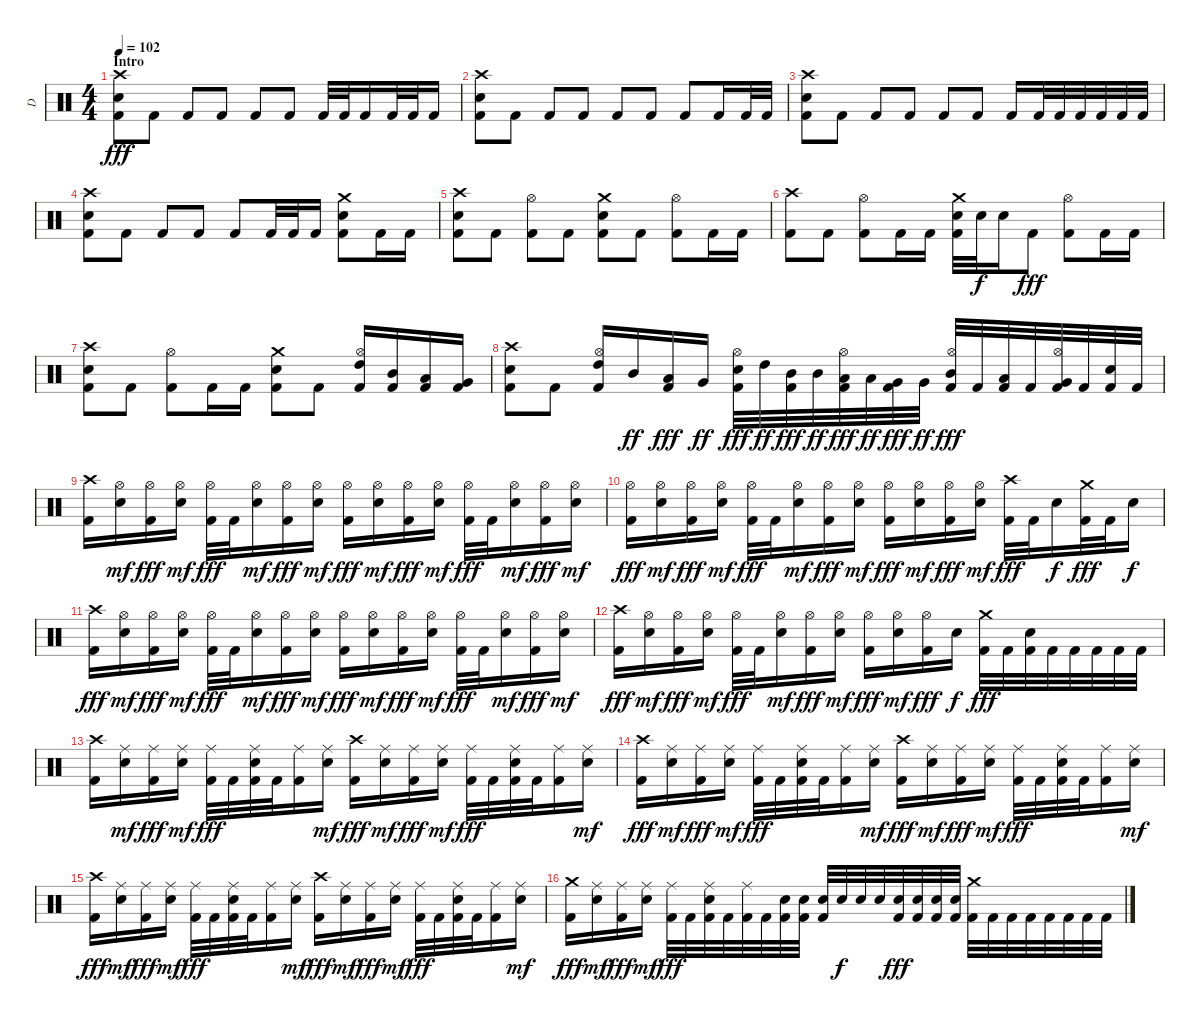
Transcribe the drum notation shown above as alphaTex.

\track ("D" "D") {instrument percussion}
\staff {score}
\articulation defaults
\ts (4 4)
\section ("" "Intro")
\tempo 102
\clef neutral
\ks c
("Crash high (hit)" "Snare (hit) 2" "Kick (hit) 2").8{dy fff} "Kick (hit) 2".8 "Kick (hit) 2".8 "Kick (hit) 2".8 "Kick (hit) 2".8 "Kick (hit) 2".8 "Kick (hit) 2".32 "Kick (hit) 2".32 "Kick (hit) 2".16 "Kick (hit) 2".32 "Kick (hit) 2".32 "Kick (hit) 2".16 |
("Crash high (hit)" "Snare (hit) 2" "Kick (hit) 2").8 "Kick (hit) 2".8 "Kick (hit) 2".8 "Kick (hit) 2".8 "Kick (hit) 2".8 "Kick (hit) 2".8 "Kick (hit) 2".8 "Kick (hit) 2".16 "Kick (hit) 2".32 "Kick (hit) 2".32 |
("Crash high (hit)" "Snare (hit) 2" "Kick (hit) 2").8 "Kick (hit) 2".8 "Kick (hit) 2".8 "Kick (hit) 2".8 "Kick (hit) 2".8 "Kick (hit) 2".8 "Kick (hit) 2".16 "Kick (hit) 2".32 "Kick (hit) 2".32 "Kick (hit) 2".32 "Kick (hit) 2".32 "Kick (hit) 2".32 "Kick (hit) 2".32 |
("Crash high (hit)" "Snare (hit) 2" "Kick (hit) 2").8 "Kick (hit) 2".8 "Kick (hit) 2".8 "Kick (hit) 2".8 "Kick (hit) 2".8 "Kick (hit) 2".32 "Kick (hit) 2".32 "Kick (hit) 2".16 ("Crash medium (hit)" "Snare (hit) 2" "Kick (hit) 2").8 "Kick (hit) 2".16 "Kick (hit) 2".16 |
("Crash high (hit)" "Snare (hit) 2" "Kick (hit) 2").8 "Kick (hit) 2".8 ("Hi-Hat (open)" "Kick (hit) 2").8 "Kick (hit) 2".8 ("Crash medium (hit)" "Snare (hit) 2" "Kick (hit) 2").8 "Kick (hit) 2".8 ("Hi-Hat (open)" "Kick (hit) 2").8 "Kick (hit) 2".16 "Kick (hit) 2".16 |
("Crash high (hit)" "Kick (hit) 2").8 "Kick (hit) 2".8 ("Hi-Hat (open)" "Kick (hit) 2").8 "Kick (hit) 2".16 "Kick (hit) 2".16 ("Crash medium (hit)" "Snare (hit) 2" "Kick (hit) 2").32 "Snare (hit) 2".32{dy f} "Snare (hit) 2".16 "Kick (hit) 2".8{dy fff} ("Hi-Hat (open)" "Kick (hit) 2").8 "Kick (hit) 2".16 "Kick (hit) 2".16 |
("Crash high (hit)" "Snare (hit) 2" "Kick (hit) 2").8 "Kick (hit) 2".8 ("Hi-Hat (open)" "Kick (hit) 2").8 "Kick (hit) 2".16 "Kick (hit) 2".16 ("Crash medium (hit)" "Snare (hit) 2" "Kick (hit) 2").8 "Kick (hit) 2".8 ("Hi-Hat (open)" "High Tom (hit)" "Kick (hit) 2").16 ("Mid Tom (hit)" "Kick (hit) 2").16 ("Low Tom (hit)" "Kick (hit) 2").16 ("Very Low Tom (hit)" "Kick (hit) 2").16 |
("Crash high (hit)" "Snare (hit) 2" "Kick (hit) 2").8 "Kick (hit) 2".8 ("Hi-Hat (open)" "High Tom (hit)" "Kick (hit) 2").16 "Mid Tom (hit)".16{dy ff} ("Low Tom (hit)" "Kick (hit) 2").16{dy fff} "Very Low Tom (hit)".16{dy ff} ("Hi-Hat (open)" "Snare (hit) 2" "Kick (hit) 2").32{dy fff} "High Tom (hit)".32{dy ff} ("Mid Tom (hit)" "Kick (hit) 2").32{dy fff} "Mid Tom (hit)".32{dy ff} ("Hi-Hat (open)" "Low Tom (hit)" "Kick (hit) 2").32{dy fff} "Low Tom (hit)".32{dy ff} ("Very Low Tom (hit)" "Kick (hit) 2").32{dy fff} "Very Low Tom (hit)".32{dy ff} ("Hi-Hat (open)" "Mid Tom (hit)" "Kick (hit) 2").32{dy fff} "Kick (hit) 2".32 ("Low Tom (hit)" "Kick (hit) 2").32 "Kick (hit) 2".32 ("Hi-Hat (open)" "Very Low Tom (hit)" "Kick (hit) 2").32 "Kick (hit) 2".32 ("Snare (hit) 2" "Kick (hit) 2").32 "Kick (hit) 2".32 |
\section ("" "")
("Crash high (hit)" "Kick (hit) 2").16 ("Hi-Hat (open)" "Snare (hit) 2").16{dy mf} ("Hi-Hat (open)" "Kick (hit) 2").16{dy fff} ("Hi-Hat (open)" "Snare (hit) 2").16{dy mf} ("Hi-Hat (open)" "Kick (hit) 2").32{dy fff} "Kick (hit) 2".32 ("Hi-Hat (open)" "Snare (hit) 2").16{dy mf} ("Hi-Hat (open)" "Kick (hit) 2").16{dy fff} ("Hi-Hat (open)" "Snare (hit) 2").16{dy mf} ("Hi-Hat (open)" "Kick (hit) 2").16{dy fff} ("Hi-Hat (open)" "Snare (hit) 2").16{dy mf} ("Hi-Hat (open)" "Kick (hit) 2").16{dy fff} ("Hi-Hat (open)" "Snare (hit) 2").16{dy mf} ("Hi-Hat (open)" "Kick (hit) 2").32{dy fff} "Kick (hit) 2".32 ("Hi-Hat (open)" "Snare (hit) 2").16{dy mf} ("Hi-Hat (open)" "Kick (hit) 2").16{dy fff} ("Hi-Hat (open)" "Snare (hit) 2").16{dy mf} |
("Hi-Hat (open)" "Kick (hit) 2").16{dy fff} ("Hi-Hat (open)" "Snare (hit) 2").16{dy mf} ("Hi-Hat (open)" "Kick (hit) 2").16{dy fff} ("Hi-Hat (open)" "Snare (hit) 2").16{dy mf} ("Hi-Hat (open)" "Kick (hit) 2").32{dy fff} "Kick (hit) 2".32 ("Hi-Hat (open)" "Snare (hit) 2").16{dy mf} ("Hi-Hat (open)" "Kick (hit) 2").16{dy fff} ("Hi-Hat (open)" "Snare (hit) 2").16{dy mf} ("Hi-Hat (open)" "Kick (hit) 2").16{dy fff} ("Hi-Hat (open)" "Snare (hit) 2").16{dy mf} ("Hi-Hat (open)" "Kick (hit) 2").16{dy fff} ("Hi-Hat (open)" "Snare (hit) 2").16{dy mf} ("Crash high (hit)" "Kick (hit) 2").32{dy fff} "Kick (hit) 2".32 "Snare (hit) 2".16{dy f} ("Crash medium (hit)" "Kick (hit) 2").32{dy fff} "Kick (hit) 2".32 "Snare (hit) 2".16{dy f} |
("Crash high (hit)" "Kick (hit) 2").16{dy fff} ("Hi-Hat (open)" "Snare (hit) 2").16{dy mf} ("Hi-Hat (open)" "Kick (hit) 2").16{dy fff} ("Hi-Hat (open)" "Snare (hit) 2").16{dy mf} ("Hi-Hat (open)" "Kick (hit) 2").32{dy fff} "Kick (hit) 2".32 ("Hi-Hat (open)" "Snare (hit) 2").16{dy mf} ("Hi-Hat (open)" "Kick (hit) 2").16{dy fff} ("Hi-Hat (open)" "Snare (hit) 2").16{dy mf} ("Hi-Hat (open)" "Kick (hit) 2").16{dy fff} ("Hi-Hat (open)" "Snare (hit) 2").16{dy mf} ("Hi-Hat (open)" "Kick (hit) 2").16{dy fff} ("Hi-Hat (open)" "Snare (hit) 2").16{dy mf} ("Hi-Hat (open)" "Kick (hit) 2").32{dy fff} "Kick (hit) 2".32 ("Hi-Hat (open)" "Snare (hit) 2").16{dy mf} ("Hi-Hat (open)" "Kick (hit) 2").16{dy fff} ("Hi-Hat (open)" "Snare (hit) 2").16{dy mf} |
("Crash high (hit)" "Kick (hit) 2").16{dy fff} ("Hi-Hat (open)" "Snare (hit) 2").16{dy mf} ("Hi-Hat (open)" "Kick (hit) 2").16{dy fff} ("Hi-Hat (open)" "Snare (hit) 2").16{dy mf} ("Hi-Hat (open)" "Kick (hit) 2").32{dy fff} "Kick (hit) 2".32 ("Hi-Hat (open)" "Snare (hit) 2").16{dy mf} ("Hi-Hat (open)" "Kick (hit) 2").16{dy fff} ("Hi-Hat (open)" "Snare (hit) 2").16{dy mf} ("Hi-Hat (open)" "Kick (hit) 2").16{dy fff} ("Hi-Hat (open)" "Snare (hit) 2").16{dy mf} ("Hi-Hat (open)" "Kick (hit) 2").16{dy fff} "Snare (hit) 2".16{dy f} ("Crash medium (hit)" "Kick (hit) 2").32{dy fff} "Kick (hit) 2".32 ("Snare (hit) 2" "Kick (hit) 2").32 "Kick (hit) 2".32 "Kick (hit) 2".32 "Kick (hit) 2".32 "Kick (hit) 2".32 "Kick (hit) 2".32 |
("Crash high (hit)" "Kick (hit) 2").16 ("Ride (middle)" "Snare (hit) 2").16{dy mf} ("Ride (middle)" "Kick (hit) 2").16{dy fff} ("Ride (middle)" "Snare (hit) 2").16{dy mf} ("Ride (middle)" "Kick (hit) 2").32{dy fff} "Kick (hit) 2".32 ("Ride (middle)" "Snare (hit) 2" "Kick (hit) 2").32 "Kick (hit) 2".32 ("Ride (middle)" "Kick (hit) 2").16 ("Ride (middle)" "Snare (hit) 2").16{dy mf} ("Crash high (hit)" "Kick (hit) 2").16{dy fff} ("Ride (middle)" "Snare (hit) 2").16{dy mf} ("Ride (middle)" "Kick (hit) 2").16{dy fff} ("Ride (middle)" "Snare (hit) 2").16{dy mf} ("Ride (middle)" "Kick (hit) 2").32{dy fff} "Kick (hit) 2".32 ("Ride (middle)" "Snare (hit) 2" "Kick (hit) 2").32 "Kick (hit) 2".32 ("Ride (middle)" "Kick (hit) 2").16 ("Ride (middle)" "Snare (hit) 2").16{dy mf} |
("Crash high (hit)" "Kick (hit) 2").16{dy fff} ("Ride (middle)" "Snare (hit) 2").16{dy mf} ("Ride (middle)" "Kick (hit) 2").16{dy fff} ("Ride (middle)" "Snare (hit) 2").16{dy mf} ("Ride (middle)" "Kick (hit) 2").32{dy fff} "Kick (hit) 2".32 ("Ride (middle)" "Snare (hit) 2" "Kick (hit) 2").32 "Kick (hit) 2".32 ("Ride (middle)" "Kick (hit) 2").16 ("Ride (middle)" "Snare (hit) 2").16{dy mf} ("Crash high (hit)" "Kick (hit) 2").16{dy fff} ("Ride (middle)" "Snare (hit) 2").16{dy mf} ("Ride (middle)" "Kick (hit) 2").16{dy fff} ("Ride (middle)" "Snare (hit) 2").16{dy mf} ("Ride (middle)" "Kick (hit) 2").32{dy fff} "Kick (hit) 2".32 ("Ride (middle)" "Snare (hit) 2" "Kick (hit) 2").32 "Kick (hit) 2".32 ("Ride (middle)" "Kick (hit) 2").16 ("Ride (middle)" "Snare (hit) 2").16{dy mf} |
("Crash high (hit)" "Kick (hit) 2").16{dy fff} ("Ride (middle)" "Snare (hit) 2").16{dy mf} ("Ride (middle)" "Kick (hit) 2").16{dy fff} ("Ride (middle)" "Snare (hit) 2").16{dy mf} ("Ride (middle)" "Kick (hit) 2").32{dy fff} "Kick (hit) 2".32 ("Ride (middle)" "Snare (hit) 2" "Kick (hit) 2").32 "Kick (hit) 2".32 ("Ride (middle)" "Kick (hit) 2").16 ("Ride (middle)" "Snare (hit) 2").16{dy mf} ("Crash high (hit)" "Kick (hit) 2").16{dy fff} ("Ride (middle)" "Snare (hit) 2").16{dy mf} ("Ride (middle)" "Kick (hit) 2").16{dy fff} ("Ride (middle)" "Snare (hit) 2").16{dy mf} ("Ride (middle)" "Kick (hit) 2").32{dy fff} "Kick (hit) 2".32 ("Ride (middle)" "Snare (hit) 2" "Kick (hit) 2").32 "Kick (hit) 2".32 ("Ride (middle)" "Kick (hit) 2").16 ("Ride (middle)" "Snare (hit) 2").16{dy mf} |
("Crash medium (hit)" "Kick (hit) 2").16{dy fff} ("Ride (middle)" "Snare (hit) 2").16{dy mf} ("Ride (middle)" "Kick (hit) 2").16{dy fff} ("Ride (middle)" "Snare (hit) 2").16{dy mf} ("Ride (middle)" "Kick (hit) 2").32{dy fff} "Kick (hit) 2".32 ("Ride (middle)" "Snare (hit) 2" "Kick (hit) 2").32 "Kick (hit) 2".32 ("Ride (middle)" "Kick (hit) 2").32 "Kick (hit) 2".32 ("Snare (hit) 2" "Kick (hit) 2").32 ("Snare (hit) 2" "Kick (hit) 2").32 ("Snare (hit) 2" "Kick (hit) 2").32 "Snare (hit) 2".32{dy f} "Snare (hit) 2".32 "Snare (hit) 2".32 ("Snare (hit) 2" "Kick (hit) 2").32{dy fff} ("Snare (hit) 2" "Kick (hit) 2").32 ("Snare (hit) 2" "Kick (hit) 2").32 ("Snare (hit) 2" "Kick (hit) 2").32 ("Crash medium (hit)" "Kick (hit) 2").32 "Kick (hit) 2".32 "Kick (hit) 2".32 "Kick (hit) 2".32 "Kick (hit) 2".32 "Kick (hit) 2".32 "Kick (hit) 2".32 "Kick (hit) 2".32
